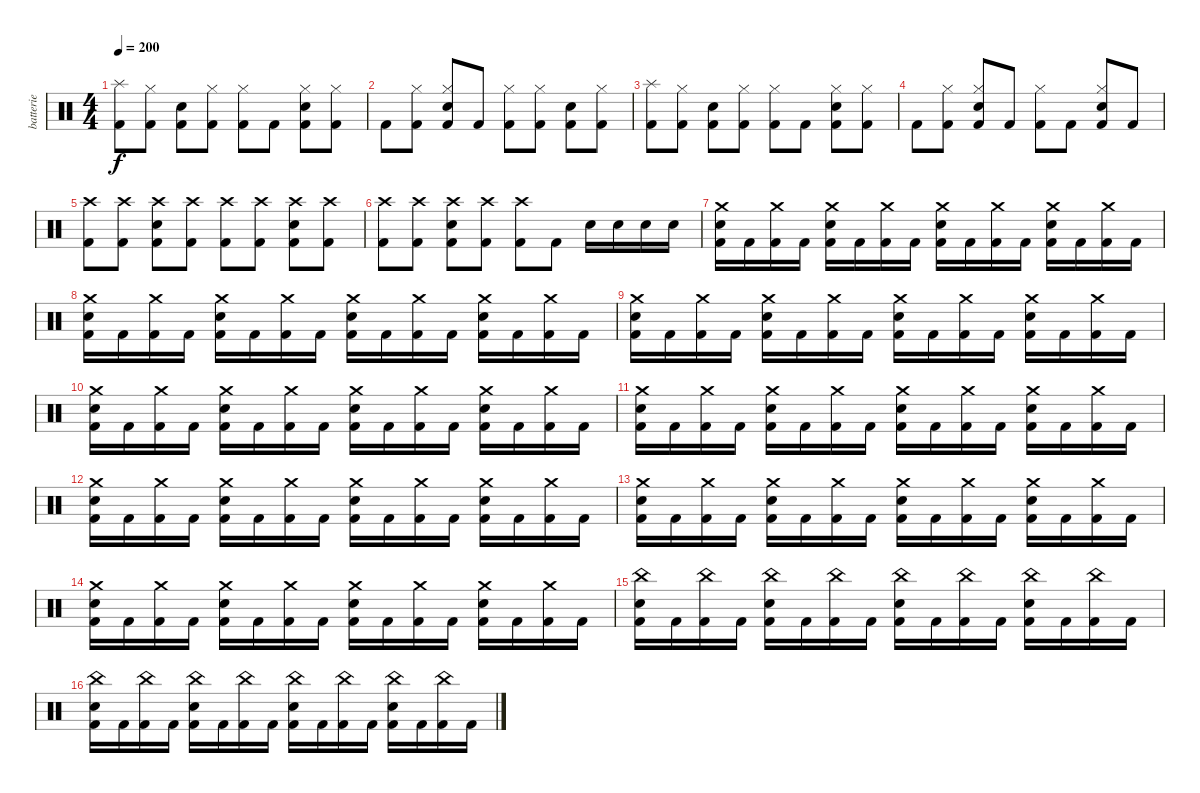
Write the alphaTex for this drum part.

\track ("batterie" "batterie") {instrument percussion}
\staff {score}
\articulation defaults
\ts (4 4)
\tempo 200
\clef neutral
\ks c
("Kick (hit) 2" "Splash (hit)").8{dy f} ("Kick (hit) 2" "Hi-Hat (closed)").8 ("Kick (hit) 2" "Electric Snare (hit)").8 ("Kick (hit) 2" "Hi-Hat (closed)").8 ("Kick (hit) 2" "Hi-Hat (closed)").8 "Kick (hit) 2".8 ("Kick (hit) 2" "Electric Snare (hit)" "Hi-Hat (closed)").8 ("Kick (hit) 2" "Hi-Hat (closed)").8 |
"Kick (hit) 2".8 ("Kick (hit) 2" "Hi-Hat (closed)").8 ("Kick (hit) 2" "Electric Snare (hit)" "Hi-Hat (closed)").8 "Kick (hit) 2".8 ("Kick (hit) 2" "Hi-Hat (closed)").8 ("Kick (hit) 2" "Hi-Hat (closed)").8 ("Kick (hit) 2" "Electric Snare (hit)").8 ("Kick (hit) 2" "Hi-Hat (closed)").8 |
("Kick (hit) 2" "Splash (hit)").8 ("Kick (hit) 2" "Hi-Hat (closed)").8 ("Kick (hit) 2" "Electric Snare (hit)").8 ("Kick (hit) 2" "Hi-Hat (closed)").8 ("Kick (hit) 2" "Hi-Hat (closed)").8 "Kick (hit) 2".8 ("Kick (hit) 2" "Electric Snare (hit)" "Hi-Hat (closed)").8 ("Kick (hit) 2" "Hi-Hat (closed)").8 |
"Kick (hit) 2".8 ("Kick (hit) 2" "Hi-Hat (closed)").8 ("Kick (hit) 2" "Electric Snare (hit)" "Hi-Hat (closed)").8 "Kick (hit) 2".8 ("Kick (hit) 2" "Hi-Hat (closed)").8 "Kick (hit) 2".8 ("Kick (hit) 2" "Electric Snare (hit)" "Hi-Hat (closed)").8 "Kick (hit) 2".8 |
("Kick (hit) 2" "Crash high (hit)").8 ("Kick (hit) 2" "Crash high (hit)").8 ("Kick (hit) 2" "Electric Snare (hit)" "Crash high (hit)").8 ("Kick (hit) 2" "Crash high (hit)").8 ("Kick (hit) 2" "Crash high (hit)").8 ("Kick (hit) 2" "Crash high (hit)").8 ("Kick (hit) 2" "Electric Snare (hit)" "Crash high (hit)").8 ("Kick (hit) 2" "Crash high (hit)").8 |
("Kick (hit) 2" "Crash high (hit)").8 ("Kick (hit) 2" "Crash high (hit)").8 ("Kick (hit) 2" "Electric Snare (hit)" "Crash high (hit)").8 ("Kick (hit) 2" "Crash high (hit)").8 ("Kick (hit) 2" "Crash high (hit)").8 "Kick (hit) 2".8 "Electric Snare (hit)".16 "Electric Snare (hit)".16 "Electric Snare (hit)".16 "Electric Snare (hit)".16 |
("Kick (hit) 2" "Electric Snare (hit)" "Crash medium (hit)").16 "Kick (hit) 2".16 ("Kick (hit) 2" "Crash medium (hit)").16 "Kick (hit) 2".16 ("Kick (hit) 2" "Electric Snare (hit)" "Crash medium (hit)").16 "Kick (hit) 2".16 ("Kick (hit) 2" "Crash medium (hit)").16 "Kick (hit) 2".16 ("Kick (hit) 2" "Electric Snare (hit)" "Crash medium (hit)").16 "Kick (hit) 2".16 ("Kick (hit) 2" "Crash medium (hit)").16 "Kick (hit) 2".16 ("Kick (hit) 2" "Electric Snare (hit)" "Crash medium (hit)").16 "Kick (hit) 2".16 ("Kick (hit) 2" "Crash medium (hit)").16 "Kick (hit) 2".16 |
("Kick (hit) 2" "Electric Snare (hit)" "Crash medium (hit)").16 "Kick (hit) 2".16 ("Kick (hit) 2" "Crash medium (hit)").16 "Kick (hit) 2".16 ("Kick (hit) 2" "Electric Snare (hit)" "Crash medium (hit)").16 "Kick (hit) 2".16 ("Kick (hit) 2" "Crash medium (hit)").16 "Kick (hit) 2".16 ("Kick (hit) 2" "Electric Snare (hit)" "Crash medium (hit)").16 "Kick (hit) 2".16 ("Kick (hit) 2" "Crash medium (hit)").16 "Kick (hit) 2".16 ("Kick (hit) 2" "Electric Snare (hit)" "Crash medium (hit)").16 "Kick (hit) 2".16 ("Kick (hit) 2" "Crash medium (hit)").16 "Kick (hit) 2".16 |
("Kick (hit) 2" "Electric Snare (hit)" "Crash medium (hit)").16 "Kick (hit) 2".16 ("Kick (hit) 2" "Crash medium (hit)").16 "Kick (hit) 2".16 ("Kick (hit) 2" "Electric Snare (hit)" "Crash medium (hit)").16 "Kick (hit) 2".16 ("Kick (hit) 2" "Crash medium (hit)").16 "Kick (hit) 2".16 ("Kick (hit) 2" "Electric Snare (hit)" "Crash medium (hit)").16 "Kick (hit) 2".16 ("Kick (hit) 2" "Crash medium (hit)").16 "Kick (hit) 2".16 ("Kick (hit) 2" "Electric Snare (hit)" "Crash medium (hit)").16 "Kick (hit) 2".16 ("Kick (hit) 2" "Crash medium (hit)").16 "Kick (hit) 2".16 |
("Kick (hit) 2" "Electric Snare (hit)" "Crash medium (hit)").16 "Kick (hit) 2".16 ("Kick (hit) 2" "Crash medium (hit)").16 "Kick (hit) 2".16 ("Kick (hit) 2" "Electric Snare (hit)" "Crash medium (hit)").16 "Kick (hit) 2".16 ("Kick (hit) 2" "Crash medium (hit)").16 "Kick (hit) 2".16 ("Kick (hit) 2" "Electric Snare (hit)" "Crash medium (hit)").16 "Kick (hit) 2".16 ("Kick (hit) 2" "Crash medium (hit)").16 "Kick (hit) 2".16 ("Kick (hit) 2" "Electric Snare (hit)" "Crash medium (hit)").16 "Kick (hit) 2".16 ("Kick (hit) 2" "Crash medium (hit)").16 "Kick (hit) 2".16 |
("Kick (hit) 2" "Electric Snare (hit)" "Crash medium (hit)").16 "Kick (hit) 2".16 ("Kick (hit) 2" "Crash medium (hit)").16 "Kick (hit) 2".16 ("Kick (hit) 2" "Electric Snare (hit)" "Crash medium (hit)").16 "Kick (hit) 2".16 ("Kick (hit) 2" "Crash medium (hit)").16 "Kick (hit) 2".16 ("Kick (hit) 2" "Electric Snare (hit)" "Crash medium (hit)").16 "Kick (hit) 2".16 ("Kick (hit) 2" "Crash medium (hit)").16 "Kick (hit) 2".16 ("Kick (hit) 2" "Electric Snare (hit)" "Crash medium (hit)").16 "Kick (hit) 2".16 ("Kick (hit) 2" "Crash medium (hit)").16 "Kick (hit) 2".16 |
("Kick (hit) 2" "Electric Snare (hit)" "Crash medium (hit)").16 "Kick (hit) 2".16 ("Kick (hit) 2" "Crash medium (hit)").16 "Kick (hit) 2".16 ("Kick (hit) 2" "Electric Snare (hit)" "Crash medium (hit)").16 "Kick (hit) 2".16 ("Kick (hit) 2" "Crash medium (hit)").16 "Kick (hit) 2".16 ("Kick (hit) 2" "Electric Snare (hit)" "Crash medium (hit)").16 "Kick (hit) 2".16 ("Kick (hit) 2" "Crash medium (hit)").16 "Kick (hit) 2".16 ("Kick (hit) 2" "Electric Snare (hit)" "Crash medium (hit)").16 "Kick (hit) 2".16 ("Kick (hit) 2" "Crash medium (hit)").16 "Kick (hit) 2".16 |
("Kick (hit) 2" "Electric Snare (hit)" "Crash medium (hit)").16 "Kick (hit) 2".16 ("Kick (hit) 2" "Crash medium (hit)").16 "Kick (hit) 2".16 ("Kick (hit) 2" "Electric Snare (hit)" "Crash medium (hit)").16 "Kick (hit) 2".16 ("Kick (hit) 2" "Crash medium (hit)").16 "Kick (hit) 2".16 ("Kick (hit) 2" "Electric Snare (hit)" "Crash medium (hit)").16 "Kick (hit) 2".16 ("Kick (hit) 2" "Crash medium (hit)").16 "Kick (hit) 2".16 ("Kick (hit) 2" "Electric Snare (hit)" "Crash medium (hit)").16 "Kick (hit) 2".16 ("Kick (hit) 2" "Crash medium (hit)").16 "Kick (hit) 2".16 |
("Kick (hit) 2" "Electric Snare (hit)" "Crash medium (hit)").16 "Kick (hit) 2".16 ("Kick (hit) 2" "Crash medium (hit)").16 "Kick (hit) 2".16 ("Kick (hit) 2" "Electric Snare (hit)" "Crash medium (hit)").16 "Kick (hit) 2".16 ("Kick (hit) 2" "Crash medium (hit)").16 "Kick (hit) 2".16 ("Kick (hit) 2" "Electric Snare (hit)" "Crash medium (hit)").16 "Kick (hit) 2".16 ("Kick (hit) 2" "Crash medium (hit)").16 "Kick (hit) 2".16 ("Kick (hit) 2" "Electric Snare (hit)" "Crash medium (hit)").16 "Kick (hit) 2".16 ("Kick (hit) 2" "Crash medium (hit)").16 "Kick (hit) 2".16 |
("Kick (hit) 2" "Electric Snare (hit)" "China (hit)").16 "Kick (hit) 2".16 ("Kick (hit) 2" "China (hit)").16 "Kick (hit) 2".16 ("Kick (hit) 2" "Electric Snare (hit)" "China (hit)").16 "Kick (hit) 2".16 ("Kick (hit) 2" "China (hit)").16 "Kick (hit) 2".16 ("Kick (hit) 2" "Electric Snare (hit)" "China (hit)").16 "Kick (hit) 2".16 ("Kick (hit) 2" "China (hit)").16 "Kick (hit) 2".16 ("Kick (hit) 2" "Electric Snare (hit)" "China (hit)").16 "Kick (hit) 2".16 ("Kick (hit) 2" "China (hit)").16 "Kick (hit) 2".16 |
("Kick (hit) 2" "Electric Snare (hit)" "China (hit)").16 "Kick (hit) 2".16 ("Kick (hit) 2" "China (hit)").16 "Kick (hit) 2".16 ("Kick (hit) 2" "Electric Snare (hit)" "China (hit)").16 "Kick (hit) 2".16 ("Kick (hit) 2" "China (hit)").16 "Kick (hit) 2".16 ("Kick (hit) 2" "Electric Snare (hit)" "China (hit)").16 "Kick (hit) 2".16 ("Kick (hit) 2" "China (hit)").16 "Kick (hit) 2".16 ("Kick (hit) 2" "Electric Snare (hit)" "China (hit)").16 "Kick (hit) 2".16 ("Kick (hit) 2" "China (hit)").16 "Kick (hit) 2".16
